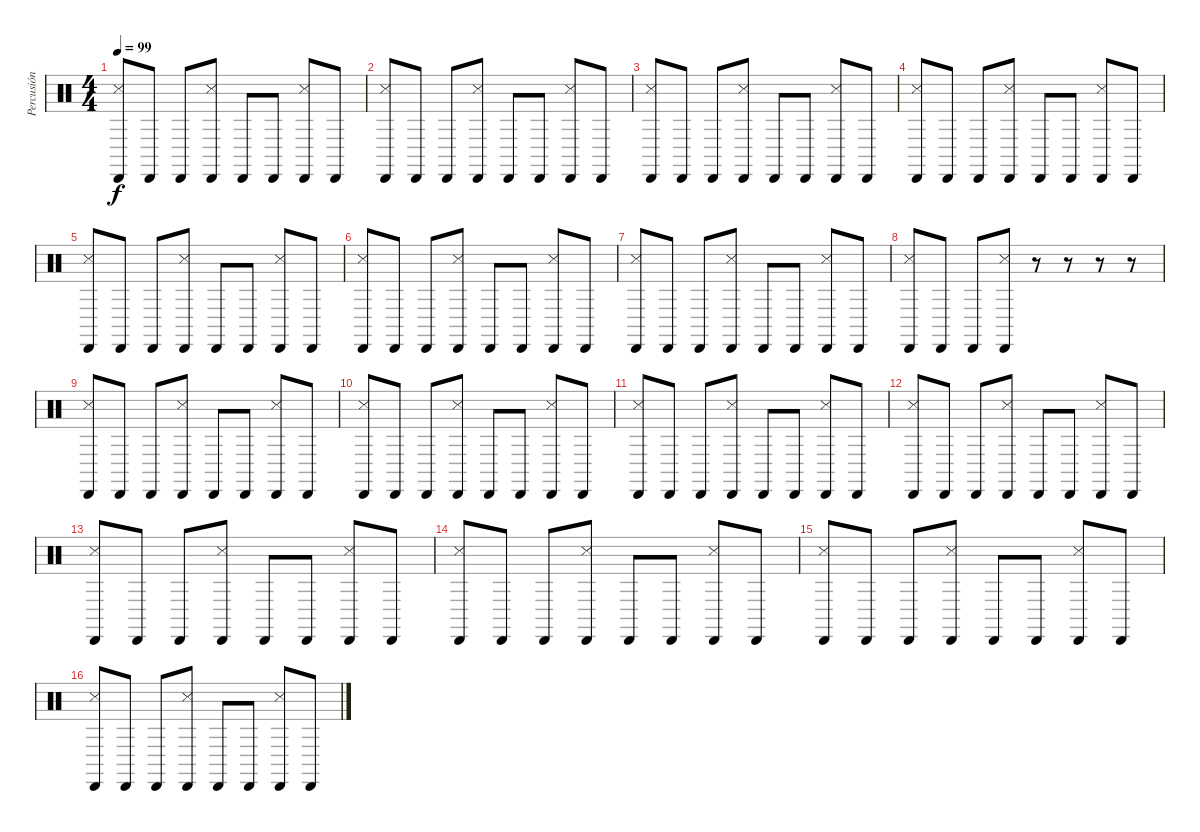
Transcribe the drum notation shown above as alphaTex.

\track ("Percusión" "Percusión") {instrument percussion}
\staff {score}
\articulation defaults
\ts (4 4)
\tempo 99
\clef neutral
\ks c
("Cabasa (hit)" "Metronome (hit)").8{dy f} "Cabasa (hit)".8 "Cabasa (hit)".8 ("Cabasa (hit)" "Metronome (hit)").8 "Cabasa (hit)".8 "Cabasa (hit)".8 ("Cabasa (hit)" "Metronome (hit)").8 "Cabasa (hit)".8 |
("Cabasa (hit)" "Metronome (hit)").8 "Cabasa (hit)".8 "Cabasa (hit)".8 ("Cabasa (hit)" "Metronome (hit)").8 "Cabasa (hit)".8 "Cabasa (hit)".8 ("Cabasa (hit)" "Metronome (hit)").8 "Cabasa (hit)".8 |
("Cabasa (hit)" "Metronome (hit)").8 "Cabasa (hit)".8 "Cabasa (hit)".8 ("Cabasa (hit)" "Metronome (hit)").8 "Cabasa (hit)".8 "Cabasa (hit)".8 ("Cabasa (hit)" "Metronome (hit)").8 "Cabasa (hit)".8 |
("Cabasa (hit)" "Metronome (hit)").8 "Cabasa (hit)".8 "Cabasa (hit)".8 ("Cabasa (hit)" "Metronome (hit)").8 "Cabasa (hit)".8 "Cabasa (hit)".8 ("Cabasa (hit)" "Metronome (hit)").8 "Cabasa (hit)".8 |
("Cabasa (hit)" "Metronome (hit)").8 "Cabasa (hit)".8 "Cabasa (hit)".8 ("Cabasa (hit)" "Metronome (hit)").8 "Cabasa (hit)".8 "Cabasa (hit)".8 ("Cabasa (hit)" "Metronome (hit)").8 "Cabasa (hit)".8 |
("Cabasa (hit)" "Metronome (hit)").8 "Cabasa (hit)".8 "Cabasa (hit)".8 ("Cabasa (hit)" "Metronome (hit)").8 "Cabasa (hit)".8 "Cabasa (hit)".8 ("Cabasa (hit)" "Metronome (hit)").8 "Cabasa (hit)".8 |
("Cabasa (hit)" "Metronome (hit)").8 "Cabasa (hit)".8 "Cabasa (hit)".8 ("Cabasa (hit)" "Metronome (hit)").8 "Cabasa (hit)".8 "Cabasa (hit)".8 ("Cabasa (hit)" "Metronome (hit)").8 "Cabasa (hit)".8 |
("Cabasa (hit)" "Metronome (hit)").8 "Cabasa (hit)".8 "Cabasa (hit)".8 ("Cabasa (hit)" "Metronome (hit)").8 r.8 r.8 r.8 r.8 |
("Cabasa (hit)" "Metronome (hit)").8 "Cabasa (hit)".8 "Cabasa (hit)".8 ("Cabasa (hit)" "Metronome (hit)").8 "Cabasa (hit)".8 "Cabasa (hit)".8 ("Cabasa (hit)" "Metronome (hit)").8 "Cabasa (hit)".8 |
("Cabasa (hit)" "Metronome (hit)").8 "Cabasa (hit)".8 "Cabasa (hit)".8 ("Cabasa (hit)" "Metronome (hit)").8 "Cabasa (hit)".8 "Cabasa (hit)".8 ("Cabasa (hit)" "Metronome (hit)").8 "Cabasa (hit)".8 |
("Cabasa (hit)" "Metronome (hit)").8 "Cabasa (hit)".8 "Cabasa (hit)".8 ("Cabasa (hit)" "Metronome (hit)").8 "Cabasa (hit)".8 "Cabasa (hit)".8 ("Cabasa (hit)" "Metronome (hit)").8 "Cabasa (hit)".8 |
("Cabasa (hit)" "Metronome (hit)").8 "Cabasa (hit)".8 "Cabasa (hit)".8 ("Cabasa (hit)" "Metronome (hit)").8 "Cabasa (hit)".8 "Cabasa (hit)".8 ("Cabasa (hit)" "Metronome (hit)").8 "Cabasa (hit)".8 |
("Cabasa (hit)" "Metronome (hit)").8 "Cabasa (hit)".8 "Cabasa (hit)".8 ("Cabasa (hit)" "Metronome (hit)").8 "Cabasa (hit)".8 "Cabasa (hit)".8 ("Cabasa (hit)" "Metronome (hit)").8 "Cabasa (hit)".8 |
("Cabasa (hit)" "Metronome (hit)").8 "Cabasa (hit)".8 "Cabasa (hit)".8 ("Cabasa (hit)" "Metronome (hit)").8 "Cabasa (hit)".8 "Cabasa (hit)".8 ("Cabasa (hit)" "Metronome (hit)").8 "Cabasa (hit)".8 |
("Cabasa (hit)" "Metronome (hit)").8 "Cabasa (hit)".8 "Cabasa (hit)".8 ("Cabasa (hit)" "Metronome (hit)").8 "Cabasa (hit)".8 "Cabasa (hit)".8 ("Cabasa (hit)" "Metronome (hit)").8 "Cabasa (hit)".8 |
("Cabasa (hit)" "Metronome (hit)").8 "Cabasa (hit)".8 "Cabasa (hit)".8 ("Cabasa (hit)" "Metronome (hit)").8 "Cabasa (hit)".8 "Cabasa (hit)".8 ("Cabasa (hit)" "Metronome (hit)").8 "Cabasa (hit)".8
